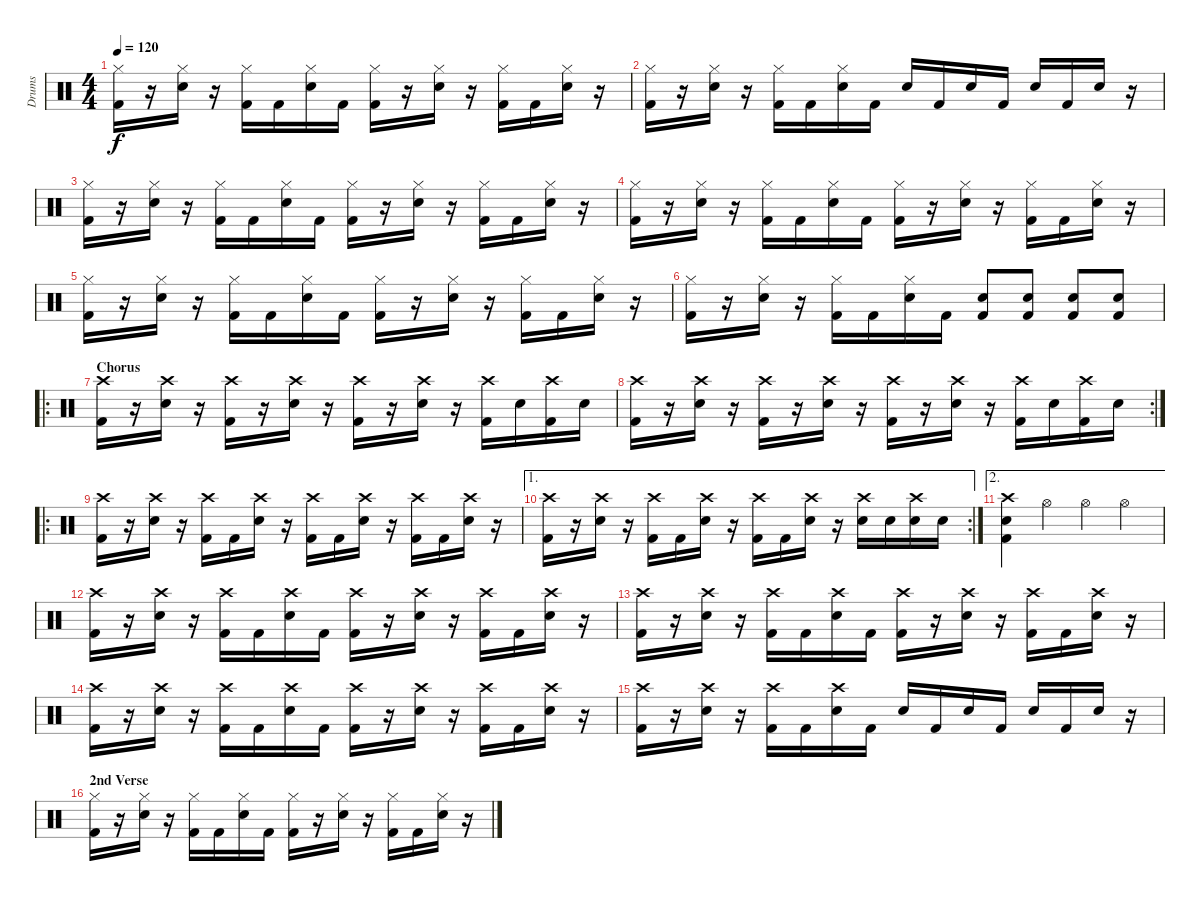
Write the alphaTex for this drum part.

\track ("Drums" "Drums") {instrument percussion}
\staff {score}
\articulation defaults
\ts (4 4)
\tempo 120
\clef neutral
\ks c
("Hi-Hat (closed)" "Kick (hit) 2").16{dy f} r.16 ("Hi-Hat (closed)" "Snare (hit) 2").16 r.16 ("Hi-Hat (closed)" "Kick (hit) 2").16 "Kick (hit) 2".16 ("Hi-Hat (closed)" "Snare (hit) 2").16 "Kick (hit) 2".16 ("Kick (hit) 2" "Hi-Hat (closed)").16 r.16 ("Snare (hit) 2" "Hi-Hat (closed)").16 r.16 ("Kick (hit) 2" "Hi-Hat (closed)").16 "Kick (hit) 2".16 ("Snare (hit) 2" "Hi-Hat (closed)").16 r.16 |
("Hi-Hat (closed)" "Kick (hit) 2").16 r.16 ("Hi-Hat (closed)" "Snare (hit) 2").16 r.16 ("Hi-Hat (closed)" "Kick (hit) 2").16 "Kick (hit) 2".16 ("Hi-Hat (closed)" "Snare (hit) 2").16 "Kick (hit) 2".16 "Snare (hit) 2".16 "Kick (hit) 2".16 "Snare (hit) 2".16 "Kick (hit) 2".16 "Snare (hit) 2".16 "Kick (hit) 2".16 "Snare (hit) 2".16 r.16 |
("Hi-Hat (closed)" "Kick (hit) 2").16 r.16 ("Hi-Hat (closed)" "Snare (hit) 2").16 r.16 ("Hi-Hat (closed)" "Kick (hit) 2").16 "Kick (hit) 2".16 ("Hi-Hat (closed)" "Snare (hit) 2").16 "Kick (hit) 2".16 ("Kick (hit) 2" "Hi-Hat (closed)").16 r.16 ("Snare (hit) 2" "Hi-Hat (closed)").16 r.16 ("Kick (hit) 2" "Hi-Hat (closed)").16 "Kick (hit) 2".16 ("Snare (hit) 2" "Hi-Hat (closed)").16 r.16 |
("Hi-Hat (closed)" "Kick (hit) 2").16 r.16 ("Hi-Hat (closed)" "Snare (hit) 2").16 r.16 ("Hi-Hat (closed)" "Kick (hit) 2").16 "Kick (hit) 2".16 ("Hi-Hat (closed)" "Snare (hit) 2").16 "Kick (hit) 2".16 ("Kick (hit) 2" "Hi-Hat (closed)").16 r.16 ("Snare (hit) 2" "Hi-Hat (closed)").16 r.16 ("Kick (hit) 2" "Hi-Hat (closed)").16 "Kick (hit) 2".16 ("Snare (hit) 2" "Hi-Hat (closed)").16 r.16 |
("Hi-Hat (closed)" "Kick (hit) 2").16 r.16 ("Hi-Hat (closed)" "Snare (hit) 2").16 r.16 ("Hi-Hat (closed)" "Kick (hit) 2").16 "Kick (hit) 2".16 ("Hi-Hat (closed)" "Snare (hit) 2").16 "Kick (hit) 2".16 ("Kick (hit) 2" "Hi-Hat (closed)").16 r.16 ("Snare (hit) 2" "Hi-Hat (closed)").16 r.16 ("Kick (hit) 2" "Hi-Hat (closed)").16 "Kick (hit) 2".16 ("Snare (hit) 2" "Hi-Hat (closed)").16 r.16 |
("Hi-Hat (closed)" "Kick (hit) 2").16 r.16 ("Hi-Hat (closed)" "Snare (hit) 2").16 r.16 ("Hi-Hat (closed)" "Kick (hit) 2").16 "Kick (hit) 2".16 ("Hi-Hat (closed)" "Snare (hit) 2").16 "Kick (hit) 2".16 ("Snare (hit) 2" "Kick (hit) 2").8 ("Snare (hit) 2" "Kick (hit) 2").8 ("Snare (hit) 2" "Kick (hit) 2").8 ("Snare (hit) 2" "Kick (hit) 2").8 |
\ro
\section ("" "Chorus")
("Crash high (hit)" "Kick (hit) 2").16 r.16 ("Crash high (hit)" "Snare (hit) 2").16 r.16 ("Crash high (hit)" "Kick (hit) 2").16 r.16 ("Crash high (hit)" "Snare (hit) 2").16 r.16 ("Crash high (hit)" "Kick (hit) 2").16 r.16 ("Crash high (hit)" "Snare (hit) 2").16 r.16 ("Crash high (hit)" "Kick (hit) 2").16 "Snare (hit) 2".16 ("Crash high (hit)" "Kick (hit) 2").16 "Snare (hit) 2".16 |
\rc 2
("Crash high (hit)" "Kick (hit) 2").16 r.16 ("Crash high (hit)" "Snare (hit) 2").16 r.16 ("Crash high (hit)" "Kick (hit) 2").16 r.16 ("Crash high (hit)" "Snare (hit) 2").16 r.16 ("Crash high (hit)" "Kick (hit) 2").16 r.16 ("Crash high (hit)" "Snare (hit) 2").16 r.16 ("Crash high (hit)" "Kick (hit) 2").16 "Snare (hit) 2".16 ("Crash high (hit)" "Kick (hit) 2").16 "Snare (hit) 2".16 |
\ro
("Crash high (hit)" "Kick (hit) 2").16 r.16 ("Crash high (hit)" "Snare (hit) 2").16 r.16 ("Crash high (hit)" "Kick (hit) 2").16 "Kick (hit) 2".16 ("Crash high (hit)" "Snare (hit) 2").16 r.16 ("Crash high (hit)" "Kick (hit) 2").16 "Kick (hit) 2".16 ("Crash high (hit)" "Snare (hit) 2").16 r.16 ("Crash high (hit)" "Kick (hit) 2").16 "Kick (hit) 2".16 ("Crash high (hit)" "Snare (hit) 2").16 r.16 |
\ae 1
\rc 2
("Crash high (hit)" "Kick (hit) 2").16 r.16 ("Crash high (hit)" "Snare (hit) 2").16 r.16 ("Crash high (hit)" "Kick (hit) 2").16 "Kick (hit) 2".16 ("Crash high (hit)" "Snare (hit) 2").16 r.16 ("Crash high (hit)" "Kick (hit) 2").16 "Kick (hit) 2".16 ("Crash high (hit)" "Snare (hit) 2").16 r.16 ("Crash high (hit)" "Snare (hit) 2").16 "Snare (hit) 2".16 ("Crash high (hit)" "Snare (hit) 2").16 "Snare (hit) 2".16 |
\ae 2
("Snare (hit) 2" "Kick (hit) 2" "Crash high (hit)").4 "Hi-Hat (open)".4 "Hi-Hat (open)".4 "Hi-Hat (open)".4 |
("Crash high (hit)" "Kick (hit) 2").16 r.16 ("Crash high (hit)" "Snare (hit) 2").16 r.16 ("Crash high (hit)" "Kick (hit) 2").16 "Kick (hit) 2".16 ("Crash high (hit)" "Snare (hit) 2").16 "Kick (hit) 2".16 ("Kick (hit) 2" "Crash high (hit)").16 r.16 ("Snare (hit) 2" "Crash high (hit)").16 r.16 ("Kick (hit) 2" "Crash high (hit)").16 "Kick (hit) 2".16 ("Snare (hit) 2" "Crash high (hit)").16 r.16 |
("Crash high (hit)" "Kick (hit) 2").16 r.16 ("Crash high (hit)" "Snare (hit) 2").16 r.16 ("Crash high (hit)" "Kick (hit) 2").16 "Kick (hit) 2".16 ("Crash high (hit)" "Snare (hit) 2").16 "Kick (hit) 2".16 ("Kick (hit) 2" "Crash high (hit)").16 r.16 ("Snare (hit) 2" "Crash high (hit)").16 r.16 ("Kick (hit) 2" "Crash high (hit)").16 "Kick (hit) 2".16 ("Snare (hit) 2" "Crash high (hit)").16 r.16 |
("Crash high (hit)" "Kick (hit) 2").16 r.16 ("Crash high (hit)" "Snare (hit) 2").16 r.16 ("Crash high (hit)" "Kick (hit) 2").16 "Kick (hit) 2".16 ("Crash high (hit)" "Snare (hit) 2").16 "Kick (hit) 2".16 ("Kick (hit) 2" "Crash high (hit)").16 r.16 ("Snare (hit) 2" "Crash high (hit)").16 r.16 ("Kick (hit) 2" "Crash high (hit)").16 "Kick (hit) 2".16 ("Snare (hit) 2" "Crash high (hit)").16 r.16 |
("Crash high (hit)" "Kick (hit) 2").16 r.16 ("Crash high (hit)" "Snare (hit) 2").16 r.16 ("Crash high (hit)" "Kick (hit) 2").16 "Kick (hit) 2".16 ("Crash high (hit)" "Snare (hit) 2").16 "Kick (hit) 2".16 "Snare (hit) 2".16 "Kick (hit) 2".16 "Snare (hit) 2".16 "Kick (hit) 2".16 "Snare (hit) 2".16 "Kick (hit) 2".16 "Snare (hit) 2".16 r.16 |
\section ("" "2nd Verse")
("Hi-Hat (closed)" "Kick (hit) 2").16 r.16 ("Hi-Hat (closed)" "Snare (hit) 2").16 r.16 ("Hi-Hat (closed)" "Kick (hit) 2").16 "Kick (hit) 2".16 ("Hi-Hat (closed)" "Snare (hit) 2").16 "Kick (hit) 2".16 ("Kick (hit) 2" "Hi-Hat (closed)").16 r.16 ("Snare (hit) 2" "Hi-Hat (closed)").16 r.16 ("Kick (hit) 2" "Hi-Hat (closed)").16 "Kick (hit) 2".16 ("Snare (hit) 2" "Hi-Hat (closed)").16 r.16
